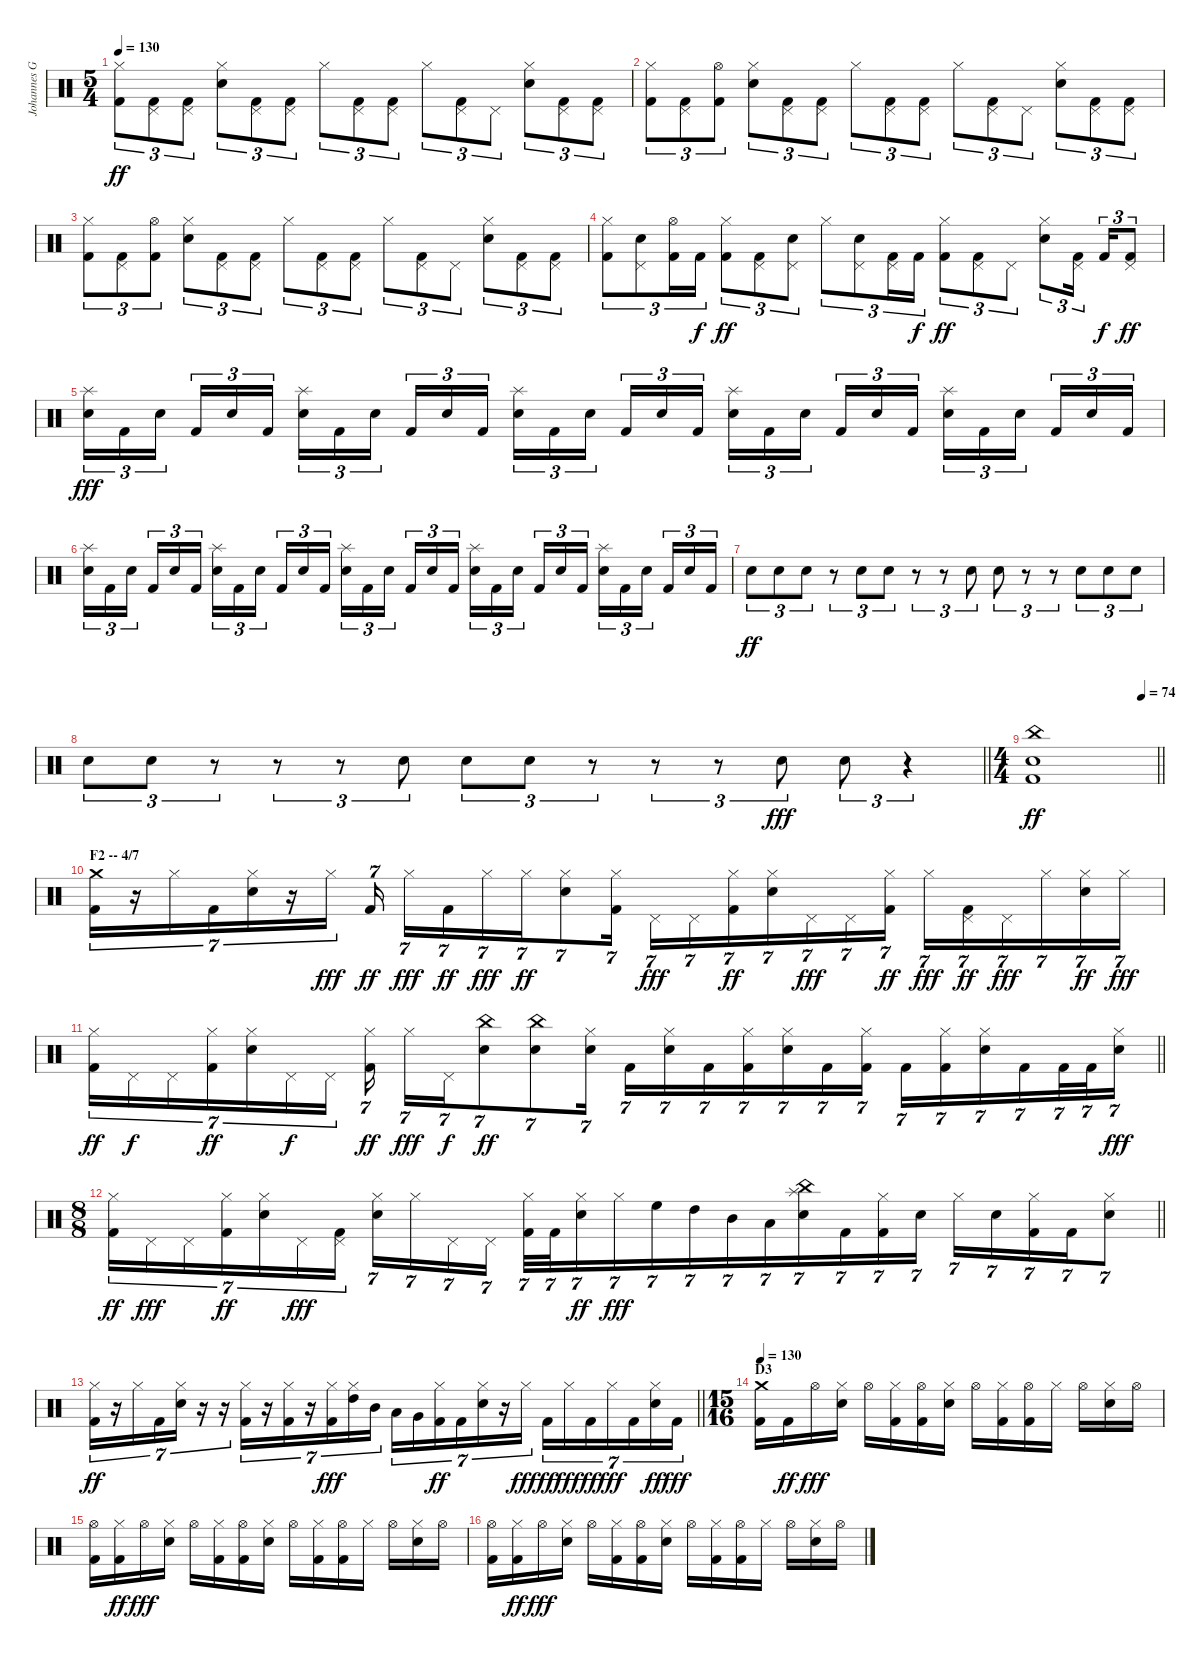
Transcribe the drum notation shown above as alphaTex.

\track ("Johannes Grossmann" "Johannes G") {instrument percussion}
\staff {score}
\articulation defaults
\ts (5 4)
\tempo 130
\clef neutral
\ks c
("Hi-Hat (closed)" "Kick (hit) 2").8{tu (3 2) dy ff} ("Pedal Hi-Hat (hit)" "Kick (hit) 2").8{tu (3 2)} ("Pedal Hi-Hat (hit)" "Kick (hit) 2").8{tu (3 2)} ("Hi-Hat (closed)" "Snare (hit) 2").8{tu (3 2)} ("Pedal Hi-Hat (hit)" "Kick (hit) 2").8{tu (3 2)} ("Pedal Hi-Hat (hit)" "Kick (hit) 2").8{tu (3 2)} "Hi-Hat (closed)".8{tu (3 2)} ("Pedal Hi-Hat (hit)" "Kick (hit) 2").8{tu (3 2)} ("Pedal Hi-Hat (hit)" "Kick (hit) 2").8{tu (3 2)} "Hi-Hat (closed)".8{tu (3 2)} ("Pedal Hi-Hat (hit)" "Kick (hit) 2").8{tu (3 2)} "Pedal Hi-Hat (hit)".8{tu (3 2)} ("Hi-Hat (closed)" "Snare (hit) 2").8{tu (3 2)} ("Pedal Hi-Hat (hit)" "Kick (hit) 2").8{tu (3 2)} ("Pedal Hi-Hat (hit)" "Kick (hit) 2").8{tu (3 2)} |
("Hi-Hat (closed)" "Kick (hit) 2").8{tu (3 2)} ("Pedal Hi-Hat (hit)" "Kick (hit) 2").8{tu (3 2)} ("Hi-Hat (open)" "Kick (hit) 2").8{tu (3 2)} ("Hi-Hat (closed)" "Snare (hit) 2").8{tu (3 2)} ("Pedal Hi-Hat (hit)" "Kick (hit) 2").8{tu (3 2)} ("Pedal Hi-Hat (hit)" "Kick (hit) 2").8{tu (3 2)} "Hi-Hat (closed)".8{tu (3 2)} ("Pedal Hi-Hat (hit)" "Kick (hit) 2").8{tu (3 2)} ("Pedal Hi-Hat (hit)" "Kick (hit) 2").8{tu (3 2)} "Hi-Hat (closed)".8{tu (3 2)} ("Pedal Hi-Hat (hit)" "Kick (hit) 2").8{tu (3 2)} "Pedal Hi-Hat (hit)".8{tu (3 2)} ("Hi-Hat (closed)" "Snare (hit) 2").8{tu (3 2)} ("Pedal Hi-Hat (hit)" "Kick (hit) 2").8{tu (3 2)} ("Pedal Hi-Hat (hit)" "Kick (hit) 2").8{tu (3 2)} |
("Hi-Hat (closed)" "Kick (hit) 2").8{tu (3 2)} ("Pedal Hi-Hat (hit)" "Kick (hit) 2").8{tu (3 2)} ("Hi-Hat (open)" "Kick (hit) 2").8{tu (3 2)} ("Hi-Hat (closed)" "Snare (hit) 2").8{tu (3 2)} ("Pedal Hi-Hat (hit)" "Kick (hit) 2").8{tu (3 2)} ("Pedal Hi-Hat (hit)" "Kick (hit) 2").8{tu (3 2)} "Hi-Hat (closed)".8{tu (3 2)} ("Pedal Hi-Hat (hit)" "Kick (hit) 2").8{tu (3 2)} ("Pedal Hi-Hat (hit)" "Kick (hit) 2").8{tu (3 2)} "Hi-Hat (closed)".8{tu (3 2)} ("Pedal Hi-Hat (hit)" "Kick (hit) 2").8{tu (3 2)} "Pedal Hi-Hat (hit)".8{tu (3 2)} ("Hi-Hat (closed)" "Snare (hit) 2").8{tu (3 2)} ("Pedal Hi-Hat (hit)" "Kick (hit) 2").8{tu (3 2)} ("Pedal Hi-Hat (hit)" "Kick (hit) 2").8{tu (3 2)} |
("Hi-Hat (closed)" "Kick (hit) 2").8{tu (3 2)} ("Pedal Hi-Hat (hit)" "Snare (hit) 2").8{tu (3 2)} ("Hi-Hat (open)" "Kick (hit) 2").16{tu (3 2)} "Kick (hit) 2".16{tu (3 2) dy f} ("Hi-Hat (closed)" "Kick (hit) 2").8{tu (3 2) dy ff} ("Pedal Hi-Hat (hit)" "Kick (hit) 2").8{tu (3 2)} ("Pedal Hi-Hat (hit)" "Snare (hit) 2").8{tu (3 2)} "Hi-Hat (closed)".8{tu (3 2)} ("Pedal Hi-Hat (hit)" "Snare (hit) 2").8{tu (3 2)} ("Pedal Hi-Hat (hit)" "Kick (hit) 2").16{tu (3 2)} "Kick (hit) 2".16{tu (3 2) dy f} ("Hi-Hat (closed)" "Kick (hit) 2").8{tu (3 2) dy ff} ("Pedal Hi-Hat (hit)" "Kick (hit) 2").8{tu (3 2)} "Pedal Hi-Hat (hit)".8{tu (3 2)} ("Hi-Hat (closed)" "Snare (hit) 2").8{tu (3 2)} ("Pedal Hi-Hat (hit)" "Kick (hit) 2").16{tu (3 2) beam splitsecondary} "Kick (hit) 2".16{tu (3 2) dy f} ("Pedal Hi-Hat (hit)" "Kick (hit) 2").8{tu (3 2) dy ff} |
("Splash (hit)" "Snare (hit) 2").16{tu (3 2) dy fff} "Kick (hit) 2".16{tu (3 2)} "Snare (hit) 2".16{tu (3 2) beam splitsecondary} "Kick (hit) 2".16{tu (3 2)} "Snare (hit) 2".16{tu (3 2)} "Kick (hit) 2".16{tu (3 2)} ("Splash (hit)" "Snare (hit) 2").16{tu (3 2)} "Kick (hit) 2".16{tu (3 2)} "Snare (hit) 2".16{tu (3 2) beam splitsecondary} "Kick (hit) 2".16{tu (3 2)} "Snare (hit) 2".16{tu (3 2)} "Kick (hit) 2".16{tu (3 2)} ("Splash (hit)" "Snare (hit) 2").16{tu (3 2)} "Kick (hit) 2".16{tu (3 2)} "Snare (hit) 2".16{tu (3 2) beam splitsecondary} "Kick (hit) 2".16{tu (3 2)} "Snare (hit) 2".16{tu (3 2)} "Kick (hit) 2".16{tu (3 2)} ("Splash (hit)" "Snare (hit) 2").16{tu (3 2)} "Kick (hit) 2".16{tu (3 2)} "Snare (hit) 2".16{tu (3 2) beam splitsecondary} "Kick (hit) 2".16{tu (3 2)} "Snare (hit) 2".16{tu (3 2)} "Kick (hit) 2".16{tu (3 2)} ("Splash (hit)" "Snare (hit) 2").16{tu (3 2)} "Kick (hit) 2".16{tu (3 2)} "Snare (hit) 2".16{tu (3 2) beam splitsecondary} "Kick (hit) 2".16{tu (3 2)} "Snare (hit) 2".16{tu (3 2)} "Kick (hit) 2".16{tu (3 2)} |
("Splash (hit)" "Snare (hit) 2").16{tu (3 2)} "Kick (hit) 2".16{tu (3 2)} "Snare (hit) 2".16{tu (3 2) beam splitsecondary} "Kick (hit) 2".16{tu (3 2)} "Snare (hit) 2".16{tu (3 2)} "Kick (hit) 2".16{tu (3 2)} ("Splash (hit)" "Snare (hit) 2").16{tu (3 2)} "Kick (hit) 2".16{tu (3 2)} "Snare (hit) 2".16{tu (3 2) beam splitsecondary} "Kick (hit) 2".16{tu (3 2)} "Snare (hit) 2".16{tu (3 2)} "Kick (hit) 2".16{tu (3 2)} ("Splash (hit)" "Snare (hit) 2").16{tu (3 2)} "Kick (hit) 2".16{tu (3 2)} "Snare (hit) 2".16{tu (3 2) beam splitsecondary} "Kick (hit) 2".16{tu (3 2)} "Snare (hit) 2".16{tu (3 2)} "Kick (hit) 2".16{tu (3 2)} ("Splash (hit)" "Snare (hit) 2").16{tu (3 2)} "Kick (hit) 2".16{tu (3 2)} "Snare (hit) 2".16{tu (3 2) beam splitsecondary} "Kick (hit) 2".16{tu (3 2)} "Snare (hit) 2".16{tu (3 2)} "Kick (hit) 2".16{tu (3 2)} ("Splash (hit)" "Snare (hit) 2").16{tu (3 2)} "Kick (hit) 2".16{tu (3 2)} "Snare (hit) 2".16{tu (3 2) beam splitsecondary} "Kick (hit) 2".16{tu (3 2)} "Snare (hit) 2".16{tu (3 2)} "Kick (hit) 2".16{tu (3 2)} |
"Snare (hit) 2".8{tu (3 2) dy ff} "Snare (hit) 2".8{tu (3 2)} "Snare (hit) 2".8{tu (3 2)} r.8{tu (3 2)} "Snare (hit) 2".8{tu (3 2)} "Snare (hit) 2".8{tu (3 2)} r.8{tu (3 2)} r.8{tu (3 2)} "Snare (hit) 2".8{tu (3 2)} "Snare (hit) 2".8{tu (3 2)} r.8{tu (3 2)} r.8{tu (3 2)} "Snare (hit) 2".8{tu (3 2)} "Snare (hit) 2".8{tu (3 2)} "Snare (hit) 2".8{tu (3 2)} |
\barLineRight lightlight "Snare (hit) 2".8{tu (3 2)} "Snare (hit) 2".8{tu (3 2)}
r.8{tu (3 2)} r.8{tu (3 2)} r.8{tu (3 2)} "Snare (hit) 2".8{tu (3 2)} "Snare (hit) 2".8{tu (3 2)} "Snare (hit) 2".8{tu (3 2)} r.8{tu (3 2)} r.8{tu (3 2)} r.8{tu (3 2)} "Snare (hit) 2".8{tu (3 2) dy fff} "Snare (hit) 2".8{tu (3 2)} r.4{tu (3 2)} |
\ts (4 4)
\tempo (74 0.875)
\barLineRight lightlight
("China (hit)" "Electric Snare (hit)" "Kick (hit) 2").1{dy ff} |
\section ("" "F2 -- 4/7")
("Crash medium (hit)" "Kick (hit) 2").16{tu (7 4)} r.16{tu (7 4)} "Hi-Hat (closed)".16{tu (7 4)} "Kick (hit) 2".16{tu (7 4)} ("Hi-Hat (closed)" "Snare (hit) 2").16{tu (7 4)} r.16{tu (7 4)} "Hi-Hat (closed)".16{tu (7 4) dy fff} "Kick (hit) 2".16{tu (7 4) dy ff} "Hi-Hat (closed)".16{tu (7 4) dy fff} "Kick (hit) 2".16{tu (7 4) dy ff} "Hi-Hat (closed)".16{tu (7 4) dy fff} "Hi-Hat (closed)".16{tu (7 4) dy ff} ("Hi-Hat (closed)" "Snare (hit) 2").8{tu (7 4)} ("Hi-Hat (closed)" "Kick (hit) 2").16{tu (7 4)} "Pedal Hi-Hat (hit)".16{tu (7 4) dy fff} "Pedal Hi-Hat (hit)".16{tu (7 4)} ("Hi-Hat (closed)" "Kick (hit) 2").16{tu (7 4) dy ff} ("Hi-Hat (closed)" "Snare (hit) 2").16{tu (7 4)} "Pedal Hi-Hat (hit)".16{tu (7 4) dy fff} "Pedal Hi-Hat (hit)".16{tu (7 4)} ("Hi-Hat (closed)" "Kick (hit) 2").16{tu (7 4) dy ff} "Hi-Hat (closed)".16{tu (7 4) dy fff} ("Pedal Hi-Hat (hit)" "Kick (hit) 2").16{tu (7 4) dy ff} "Pedal Hi-Hat (hit)".16{tu (7 4) dy fff} "Hi-Hat (closed)".16{tu (7 4)} ("Hi-Hat (closed)" "Snare (hit) 2").16{tu (7 4) dy ff} "Hi-Hat (closed)".16{tu (7 4) dy fff} |
\barLineRight lightlight
("Hi-Hat (closed)" "Kick (hit) 2").16{tu (7 4) dy ff} "Pedal Hi-Hat (hit)".16{tu (7 4) dy f} "Pedal Hi-Hat (hit)".16{tu (7 4)} ("Hi-Hat (closed)" "Kick (hit) 2").16{tu (7 4) dy ff} ("Hi-Hat (closed)" "Snare (hit) 2").16{tu (7 4)} "Pedal Hi-Hat (hit)".16{tu (7 4) dy f} "Pedal Hi-Hat (hit)".16{tu (7 4)} ("Hi-Hat (closed)" "Kick (hit) 2").16{tu (7 4) dy ff} "Hi-Hat (closed)".16{tu (7 4) dy fff} "Pedal Hi-Hat (hit)".16{tu (7 4) dy f} ("China (hit)" "Snare (hit) 2").8{tu (7 4) dy ff} ("China (hit)" "Snare (hit) 2").8{tu (7 4)} ("Hi-Hat (closed)" "Snare (hit) 2").16{tu (7 4)} "Kick (hit) 2".16{tu (7 4)} ("Hi-Hat (closed)" "Snare (hit) 2").16{tu (7 4)} "Kick (hit) 2".16{tu (7 4)} ("Hi-Hat (closed)" "Kick (hit) 2").16{tu (7 4)} ("Hi-Hat (closed)" "Snare (hit) 2").16{tu (7 4)} "Kick (hit) 2".16{tu (7 4)} ("Hi-Hat (closed)" "Kick (hit) 2").16{tu (7 4)} "Kick (hit) 2".16{tu (7 4)} ("Hi-Hat (closed)" "Kick (hit) 2").16{tu (7 4)} ("Hi-Hat (closed)" "Snare (hit) 2").16{tu (7 4)} "Kick (hit) 2".16{tu (7 4)} "Kick (hit) 2".32{tu (7 4)} "Kick (hit) 2".32{tu (7 4)} ("Hi-Hat (closed)" "Snare (hit) 2").16{tu (7 4) dy fff} |
\ts (8 8)
\barLineRight lightlight
("Hi-Hat (closed)" "Kick (hit) 2").16{tu (7 4) dy ff} "Pedal Hi-Hat (hit)".16{tu (7 4) dy fff} "Pedal Hi-Hat (hit)".16{tu (7 4)} ("Hi-Hat (closed)" "Kick (hit) 2").16{tu (7 4) dy ff} ("Hi-Hat (closed)" "Snare (hit) 2").16{tu (7 4)} "Pedal Hi-Hat (hit)".16{tu (7 4) dy fff} ("Pedal Hi-Hat (hit)" "Kick (hit) 2").16{tu (7 4)} ("Hi-Hat (closed)" "Snare (hit) 2").16{tu (7 4)} "Hi-Hat (closed)".16{tu (7 4)} "Pedal Hi-Hat (hit)".16{tu (7 4)} "Pedal Hi-Hat (hit)".16{tu (7 4)} ("Hi-Hat (closed)" "Kick (hit) 2").32{tu (7 4)} "Kick (hit) 2".32{tu (7 4)} ("Hi-Hat (closed)" "Snare (hit) 2").16{tu (7 4) dy ff} "Hi-Hat (closed)".16{tu (7 4) dy fff} "High Floor Tom (hit)".16{tu (7 4)} "High Tom (hit)".16{tu (7 4)} "Mid Tom (hit)".16{tu (7 4)} "Low Tom (hit)".16{tu (7 4)} ("China (hit)" "Splash (hit)" "Snare (hit) 2").16{tu (7 4)} "Kick (hit) 2".16{tu (7 4)} ("Hi-Hat (closed)" "Kick (hit) 2").16{tu (7 4)} "Snare (hit) 2".16{tu (7 4)} "Hi-Hat (closed)".16{tu (7 4)} "Snare (hit) 2".16{tu (7 4)} ("Hi-Hat (closed)" "Kick (hit) 2").16{tu (7 4)} "Kick (hit) 2".16{tu (7 4)} ("Hi-Hat (closed)" "Snare (hit) 2").8{tu (7 4)} |
\barLineRight lightlight
("Hi-Hat (closed)" "Kick (hit) 2").16{tu (7 4) dy ff} r.16{tu (7 4)} "Hi-Hat (closed)".16{tu (7 4)} "Kick (hit) 2".16{tu (7 4)} ("Hi-Hat (closed)" "Snare (hit) 2").16{tu (7 4)} r.16{tu (7 4)} r.16{tu (7 4)} ("Hi-Hat (closed)" "Kick (hit) 2").16{tu (7 4)} r.16{tu (7 4)} ("Hi-Hat (closed)" "Kick (hit) 2").16{tu (7 4)} r.16{tu (7 4)} ("Hi-Hat (closed)" "Kick (hit) 2").16{tu (7 4) dy fff} ("Hi-Hat (closed)" "High Tom (hit)").16{tu (7 4)} "Mid Tom (hit)".16{tu (7 4)} "Low Tom (hit)".16{tu (7 4)} "Very Low Tom (hit)".16{tu (7 4)} ("Hi-Hat (closed)" "Kick (hit) 2").16{tu (7 4) dy ff} "Kick (hit) 2".16{tu (7 4)} ("Hi-Hat (closed)" "Snare (hit) 2").16{tu (7 4)} r.16{tu (7 4)} "Hi-Hat (closed)".16{tu (7 4) dy fff} "Kick (hit) 2".16{tu (7 4) dy ff} "Hi-Hat (closed)".16{tu (7 4) dy fff} "Kick (hit) 2".16{tu (7 4) dy ff} "Hi-Hat (closed)".16{tu (7 4) dy fff} "Kick (hit) 2".16{tu (7 4)} ("Hi-Hat (closed)" "Snare (hit) 2").16{tu (7 4) dy ff} "Kick (hit) 2".16{tu (7 4) dy fff} |
\ts (15 16)
\section ("" "D3")
\tempo 130
("Crash medium (hit)" "Kick (hit) 2").16 "Kick (hit) 2".16{dy ff} "Hi-Hat (open)".16{dy fff} ("Hi-Hat (closed)" "Snare (hit) 2").16 "Hi-Hat (open)".16 ("Hi-Hat (closed)" "Kick (hit) 2").16 ("Hi-Hat (open)" "Kick (hit) 2").16 ("Hi-Hat (closed)" "Snare (hit) 2").16 "Hi-Hat (open)".16 ("Hi-Hat (closed)" "Kick (hit) 2").16 ("Hi-Hat (open)" "Kick (hit) 2").16 "Hi-Hat (closed)".16 "Hi-Hat (open)".16 ("Hi-Hat (closed)" "Snare (hit) 2").16 "Hi-Hat (open)".16 |
("Hi-Hat (open)" "Kick (hit) 2").16 ("Hi-Hat (closed)" "Kick (hit) 2").16{dy ff} "Hi-Hat (open)".16{dy fff} ("Hi-Hat (closed)" "Snare (hit) 2").16 "Hi-Hat (open)".16 ("Hi-Hat (closed)" "Kick (hit) 2").16 ("Hi-Hat (open)" "Kick (hit) 2").16 ("Hi-Hat (closed)" "Snare (hit) 2").16 "Hi-Hat (open)".16 ("Hi-Hat (closed)" "Kick (hit) 2").16 ("Hi-Hat (open)" "Kick (hit) 2").16 "Hi-Hat (closed)".16 "Hi-Hat (open)".16 ("Hi-Hat (closed)" "Snare (hit) 2").16 "Hi-Hat (open)".16 |
("Hi-Hat (open)" "Kick (hit) 2").16 ("Hi-Hat (closed)" "Kick (hit) 2").16{dy ff} "Hi-Hat (open)".16{dy fff} ("Hi-Hat (closed)" "Snare (hit) 2").16 "Hi-Hat (open)".16 ("Hi-Hat (closed)" "Kick (hit) 2").16 ("Hi-Hat (open)" "Kick (hit) 2").16 ("Hi-Hat (closed)" "Snare (hit) 2").16 "Hi-Hat (open)".16 ("Hi-Hat (closed)" "Kick (hit) 2").16 ("Hi-Hat (open)" "Kick (hit) 2").16 "Hi-Hat (closed)".16 "Hi-Hat (open)".16 ("Hi-Hat (closed)" "Snare (hit) 2").16 "Hi-Hat (open)".16
